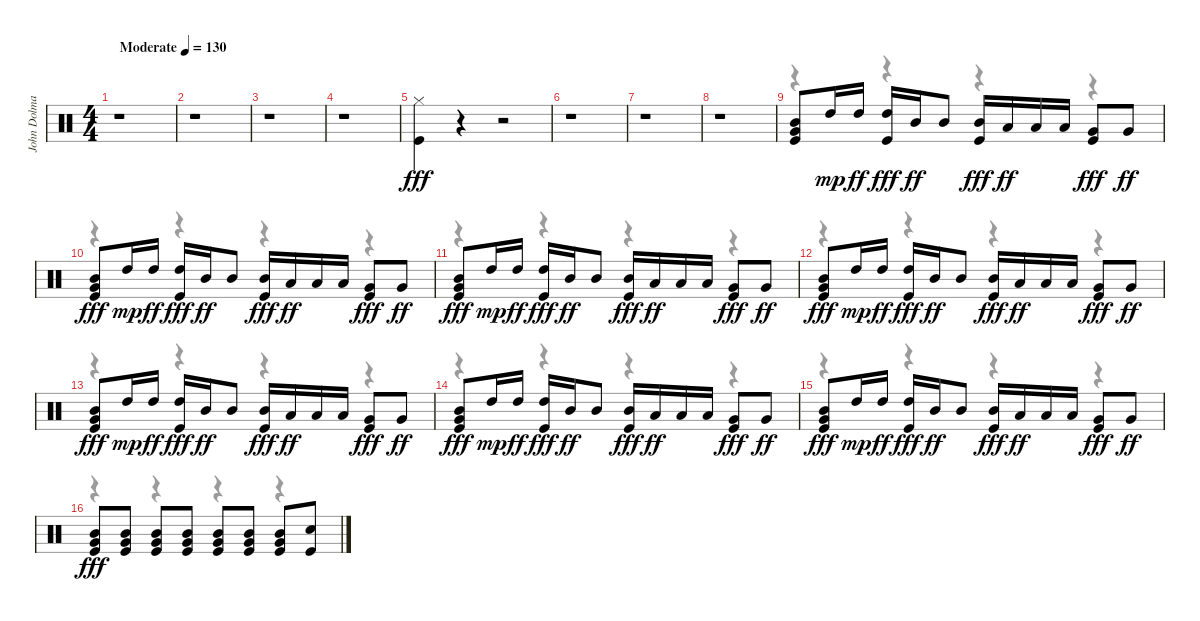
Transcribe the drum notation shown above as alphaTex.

\track ("John Dolmayan" "John Dolma") {instrument percussion}
\staff {score}
\articulation defaults
\voice
\ts (4 4)
\tempo (130 "Moderate")
\clef neutral
\ks c
r.1{dy fff} |
r.1 |
r.1 |
r.1 |
("Hi-Hat (closed)" "Kick (hit)").4 r.4 r.2 |
r.1 |
r.1 |
r.1 |
("Mid Tom (hit)" "Very Low Tom (hit)" "Kick (hit)").8 "High Tom (hit)".16{dy mp} "High Tom (hit)".16{dy ff} ("High Tom (hit)" "Kick (hit)").16{dy fff} "Mid Tom (hit)".16{dy ff} "Mid Tom (hit)".8 ("Mid Tom (hit)" "Kick (hit)").16{dy fff} "Low Tom (hit)".16{dy ff} "Low Tom (hit)".16 "Low Tom (hit)".16 ("Very Low Tom (hit)" "Kick (hit)").8{dy fff} "Very Low Tom (hit)".8{dy ff} |
("Mid Tom (hit)" "Very Low Tom (hit)" "Kick (hit)").8{dy fff} "High Tom (hit)".16{dy mp} "High Tom (hit)".16{dy ff} ("High Tom (hit)" "Kick (hit)").16{dy fff} "Mid Tom (hit)".16{dy ff} "Mid Tom (hit)".8 ("Mid Tom (hit)" "Kick (hit)").16{dy fff} "Low Tom (hit)".16{dy ff} "Low Tom (hit)".16 "Low Tom (hit)".16 ("Very Low Tom (hit)" "Kick (hit)").8{dy fff} "Very Low Tom (hit)".8{dy ff} |
("Mid Tom (hit)" "Very Low Tom (hit)" "Kick (hit)").8{dy fff} "High Tom (hit)".16{dy mp} "High Tom (hit)".16{dy ff} ("High Tom (hit)" "Kick (hit)").16{dy fff} "Mid Tom (hit)".16{dy ff} "Mid Tom (hit)".8 ("Mid Tom (hit)" "Kick (hit)").16{dy fff} "Low Tom (hit)".16{dy ff} "Low Tom (hit)".16 "Low Tom (hit)".16 ("Very Low Tom (hit)" "Kick (hit)").8{dy fff} "Very Low Tom (hit)".8{dy ff} |
("Mid Tom (hit)" "Very Low Tom (hit)" "Kick (hit)").8{dy fff} "High Tom (hit)".16{dy mp} "High Tom (hit)".16{dy ff} ("High Tom (hit)" "Kick (hit)").16{dy fff} "Mid Tom (hit)".16{dy ff} "Mid Tom (hit)".8 ("Mid Tom (hit)" "Kick (hit)").16{dy fff} "Low Tom (hit)".16{dy ff} "Low Tom (hit)".16 "Low Tom (hit)".16 ("Very Low Tom (hit)" "Kick (hit)").8{dy fff} "Very Low Tom (hit)".8{dy ff} |
("Mid Tom (hit)" "Very Low Tom (hit)" "Kick (hit)").8{dy fff} "High Tom (hit)".16{dy mp} "High Tom (hit)".16{dy ff} ("High Tom (hit)" "Kick (hit)").16{dy fff} "Mid Tom (hit)".16{dy ff} "Mid Tom (hit)".8 ("Mid Tom (hit)" "Kick (hit)").16{dy fff} "Low Tom (hit)".16{dy ff} "Low Tom (hit)".16 "Low Tom (hit)".16 ("Very Low Tom (hit)" "Kick (hit)").8{dy fff} "Very Low Tom (hit)".8{dy ff} |
("Mid Tom (hit)" "Very Low Tom (hit)" "Kick (hit)").8{dy fff} "High Tom (hit)".16{dy mp} "High Tom (hit)".16{dy ff} ("High Tom (hit)" "Kick (hit)").16{dy fff} "Mid Tom (hit)".16{dy ff} "Mid Tom (hit)".8 ("Mid Tom (hit)" "Kick (hit)").16{dy fff} "Low Tom (hit)".16{dy ff} "Low Tom (hit)".16 "Low Tom (hit)".16 ("Very Low Tom (hit)" "Kick (hit)").8{dy fff} "Very Low Tom (hit)".8{dy ff} |
("Mid Tom (hit)" "Very Low Tom (hit)" "Kick (hit)").8{dy fff} "High Tom (hit)".16{dy mp} "High Tom (hit)".16{dy ff} ("High Tom (hit)" "Kick (hit)").16{dy fff} "Mid Tom (hit)".16{dy ff} "Mid Tom (hit)".8 ("Mid Tom (hit)" "Kick (hit)").16{dy fff} "Low Tom (hit)".16{dy ff} "Low Tom (hit)".16 "Low Tom (hit)".16 ("Very Low Tom (hit)" "Kick (hit)").8{dy fff} "Very Low Tom (hit)".8{dy ff} |
("Mid Tom (hit)" "Very Low Tom (hit)" "Kick (hit)").8{dy fff} ("Mid Tom (hit)" "Very Low Tom (hit)" "Kick (hit)").8 ("Mid Tom (hit)" "Very Low Tom (hit)" "Kick (hit)").8 ("Mid Tom (hit)" "Very Low Tom (hit)" "Kick (hit)").8 ("Mid Tom (hit)" "Very Low Tom (hit)" "Kick (hit)").8 ("Mid Tom (hit)" "Very Low Tom (hit)" "Kick (hit)").8 ("Mid Tom (hit)" "Very Low Tom (hit)" "Kick (hit)").8 ("Snare (hit) 2" "Kick (hit)").8
\voice
\clef neutral
\ottava regular
\simile none
\ks c
|
|
|
|
|
|
|
|
r.4 r.4 r.4 r.4 |
r.4 r.4 r.4 r.4 |
r.4 r.4 r.4 r.4 |
r.4 r.4 r.4 r.4 |
r.4 r.4 r.4 r.4 |
r.4 r.4 r.4 r.4 |
r.4 r.4 r.4 r.4 |
r.4 r.4 r.4 r.4
